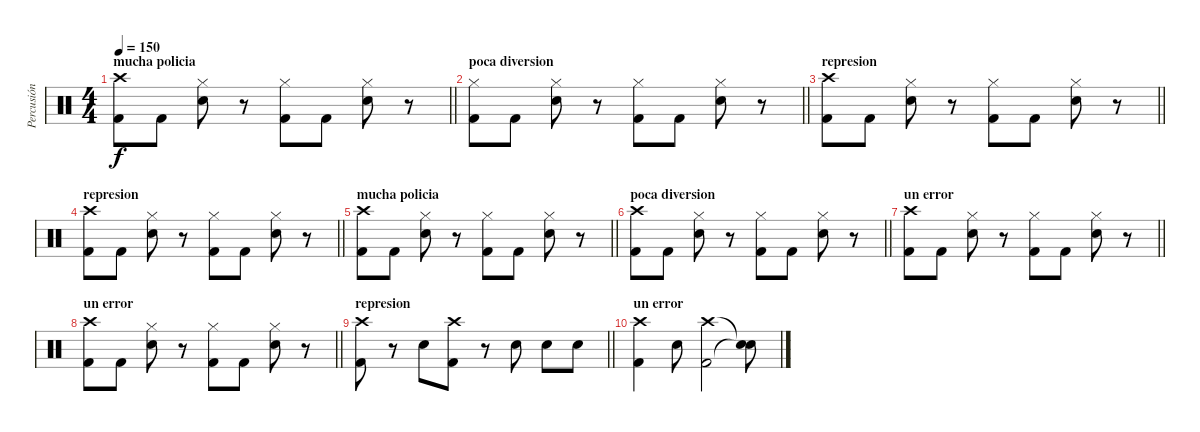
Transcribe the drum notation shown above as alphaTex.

\track ("Percusión" "Percusión") {instrument percussion}
\staff {score}
\articulation defaults
\ts (4 4)
\section ("" "mucha policia")
\tempo 150
\clef neutral
\barLineRight lightlight
\ks c
("Crash high (hit)" "Kick (hit) 2").8{dy f} "Kick (hit) 2".8 ("Hi-Hat (closed)" "Electric Snare (hit)").8 r.8 ("Hi-Hat (closed)" "Kick (hit) 2").8 "Kick (hit) 2".8 ("Hi-Hat (closed)" "Electric Snare (hit)").8 r.8 |
\section ("" "poca diversion")
\barLineRight lightlight
("Hi-Hat (closed)" "Kick (hit) 2").8 "Kick (hit) 2".8 ("Hi-Hat (closed)" "Electric Snare (hit)").8 r.8 ("Hi-Hat (closed)" "Kick (hit) 2").8 "Kick (hit) 2".8 ("Hi-Hat (closed)" "Electric Snare (hit)").8 r.8 |
\section ("" "represion")
\barLineRight lightlight
("Crash high (hit)" "Kick (hit) 2").8 "Kick (hit) 2".8 ("Hi-Hat (closed)" "Electric Snare (hit)").8 r.8 ("Hi-Hat (closed)" "Kick (hit) 2").8 "Kick (hit) 2".8 ("Hi-Hat (closed)" "Electric Snare (hit)").8 r.8 |
\section ("" "represion")
\barLineRight lightlight
("Crash high (hit)" "Kick (hit) 2").8 "Kick (hit) 2".8 ("Hi-Hat (closed)" "Electric Snare (hit)").8 r.8 ("Hi-Hat (closed)" "Kick (hit) 2").8 "Kick (hit) 2".8 ("Hi-Hat (closed)" "Electric Snare (hit)").8 r.8 |
\section ("" "mucha policia")
\barLineRight lightlight
("Crash high (hit)" "Kick (hit) 2").8 "Kick (hit) 2".8 ("Hi-Hat (closed)" "Electric Snare (hit)").8 r.8 ("Hi-Hat (closed)" "Kick (hit) 2").8 "Kick (hit) 2".8 ("Hi-Hat (closed)" "Electric Snare (hit)").8 r.8 |
\section ("" "poca diversion")
\barLineRight lightlight
("Crash high (hit)" "Kick (hit) 2").8 "Kick (hit) 2".8 ("Hi-Hat (closed)" "Electric Snare (hit)").8 r.8 ("Hi-Hat (closed)" "Kick (hit) 2").8 "Kick (hit) 2".8 ("Hi-Hat (closed)" "Electric Snare (hit)").8 r.8 |
\section ("" "un error")
\barLineRight lightlight
("Crash high (hit)" "Kick (hit) 2").8 "Kick (hit) 2".8 ("Hi-Hat (closed)" "Electric Snare (hit)").8 r.8 ("Hi-Hat (closed)" "Kick (hit) 2").8 "Kick (hit) 2".8 ("Hi-Hat (closed)" "Electric Snare (hit)").8 r.8 |
\section ("" "un error")
\barLineRight lightlight
("Crash high (hit)" "Kick (hit) 2").8 "Kick (hit) 2".8 ("Hi-Hat (closed)" "Electric Snare (hit)").8 r.8 ("Hi-Hat (closed)" "Kick (hit) 2").8 "Kick (hit) 2".8 ("Hi-Hat (closed)" "Electric Snare (hit)").8 r.8 |
\section ("" "represion")
\barLineRight lightlight
("Crash high (hit)" "Kick (hit) 2").8 r.8 "Electric Snare (hit)".8 ("Crash high (hit)" "Kick (hit) 2").8 r.8 "Electric Snare (hit)".8 "Electric Snare (hit)".8 "Electric Snare (hit)".8 |
\section ("" "un error")
("Crash high (hit)" "Kick (hit) 2").4 "Electric Snare (hit)".8 ("Crash high (hit)" "Kick (hit) 2").2 ("Snare (hit)"{t} "Snare (hit)"{t}).8
